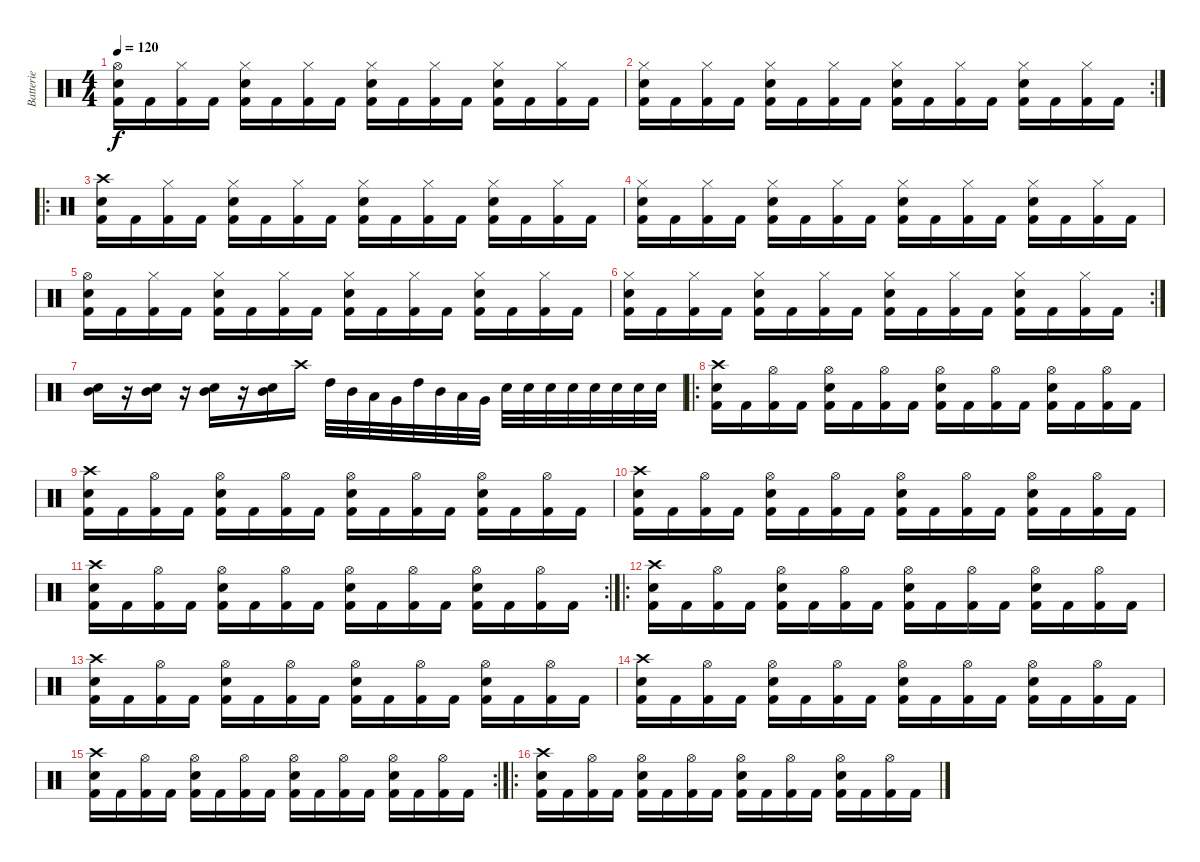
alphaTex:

\track ("Batterie" "Batterie") {instrument percussion}
\staff {score}
\articulation defaults
\ts (4 4)
\tempo 120
\clef neutral
\ks c
("Hi-Hat (open)" "Electric Snare (hit)" "Kick (hit) 2").16{dy f} "Kick (hit) 2".16 ("Hi-Hat (closed)" "Kick (hit) 2").16 "Kick (hit) 2".16 ("Hi-Hat (closed)" "Electric Snare (hit)" "Kick (hit) 2").16 "Kick (hit) 2".16 ("Hi-Hat (closed)" "Kick (hit) 2").16 "Kick (hit) 2".16 ("Hi-Hat (closed)" "Electric Snare (hit)" "Kick (hit) 2").16 "Kick (hit) 2".16 ("Hi-Hat (closed)" "Kick (hit) 2").16 "Kick (hit) 2".16 ("Hi-Hat (closed)" "Electric Snare (hit)" "Kick (hit) 2").16 "Kick (hit) 2".16 ("Hi-Hat (closed)" "Kick (hit) 2").16 "Kick (hit) 2".16 |
\rc 2
("Hi-Hat (closed)" "Electric Snare (hit)" "Kick (hit) 2").16 "Kick (hit) 2".16 ("Hi-Hat (closed)" "Kick (hit) 2").16 "Kick (hit) 2".16 ("Hi-Hat (closed)" "Electric Snare (hit)" "Kick (hit) 2").16 "Kick (hit) 2".16 ("Hi-Hat (closed)" "Kick (hit) 2").16 "Kick (hit) 2".16 ("Hi-Hat (closed)" "Electric Snare (hit)" "Kick (hit) 2").16 "Kick (hit) 2".16 ("Hi-Hat (closed)" "Kick (hit) 2").16 "Kick (hit) 2".16 ("Hi-Hat (closed)" "Electric Snare (hit)" "Kick (hit) 2").16 "Kick (hit) 2".16 ("Hi-Hat (closed)" "Kick (hit) 2").16 "Kick (hit) 2".16 |
\ro
("Crash high (hit)" "Electric Snare (hit)" "Kick (hit) 2").16 "Kick (hit) 2".16 ("Hi-Hat (closed)" "Kick (hit) 2").16 "Kick (hit) 2".16 ("Hi-Hat (closed)" "Electric Snare (hit)" "Kick (hit) 2").16 "Kick (hit) 2".16 ("Hi-Hat (closed)" "Kick (hit) 2").16 "Kick (hit) 2".16 ("Hi-Hat (closed)" "Electric Snare (hit)" "Kick (hit) 2").16 "Kick (hit) 2".16 ("Hi-Hat (closed)" "Kick (hit) 2").16 "Kick (hit) 2".16 ("Hi-Hat (closed)" "Electric Snare (hit)" "Kick (hit) 2").16 "Kick (hit) 2".16 ("Hi-Hat (closed)" "Kick (hit) 2").16 "Kick (hit) 2".16 |
("Hi-Hat (closed)" "Electric Snare (hit)" "Kick (hit) 2").16 "Kick (hit) 2".16 ("Hi-Hat (closed)" "Kick (hit) 2").16 "Kick (hit) 2".16 ("Hi-Hat (closed)" "Electric Snare (hit)" "Kick (hit) 2").16 "Kick (hit) 2".16 ("Hi-Hat (closed)" "Kick (hit) 2").16 "Kick (hit) 2".16 ("Hi-Hat (closed)" "Electric Snare (hit)" "Kick (hit) 2").16 "Kick (hit) 2".16 ("Hi-Hat (closed)" "Kick (hit) 2").16 "Kick (hit) 2".16 ("Hi-Hat (closed)" "Electric Snare (hit)" "Kick (hit) 2").16 "Kick (hit) 2".16 ("Hi-Hat (closed)" "Kick (hit) 2").16 "Kick (hit) 2".16 |
("Hi-Hat (open)" "Electric Snare (hit)" "Kick (hit) 2").16 "Kick (hit) 2".16 ("Hi-Hat (closed)" "Kick (hit) 2").16 "Kick (hit) 2".16 ("Hi-Hat (closed)" "Electric Snare (hit)" "Kick (hit) 2").16 "Kick (hit) 2".16 ("Hi-Hat (closed)" "Kick (hit) 2").16 "Kick (hit) 2".16 ("Hi-Hat (closed)" "Electric Snare (hit)" "Kick (hit) 2").16 "Kick (hit) 2".16 ("Hi-Hat (closed)" "Kick (hit) 2").16 "Kick (hit) 2".16 ("Hi-Hat (closed)" "Electric Snare (hit)" "Kick (hit) 2").16 "Kick (hit) 2".16 ("Hi-Hat (closed)" "Kick (hit) 2").16 "Kick (hit) 2".16 |
\rc 2
("Hi-Hat (closed)" "Electric Snare (hit)" "Kick (hit) 2").16 "Kick (hit) 2".16 ("Hi-Hat (closed)" "Kick (hit) 2").16 "Kick (hit) 2".16 ("Hi-Hat (closed)" "Electric Snare (hit)" "Kick (hit) 2").16 "Kick (hit) 2".16 ("Hi-Hat (closed)" "Kick (hit) 2").16 "Kick (hit) 2".16 ("Hi-Hat (closed)" "Electric Snare (hit)" "Kick (hit) 2").16 "Kick (hit) 2".16 ("Hi-Hat (closed)" "Kick (hit) 2").16 "Kick (hit) 2".16 ("Hi-Hat (closed)" "Electric Snare (hit)" "Kick (hit) 2").16 "Kick (hit) 2".16 ("Hi-Hat (closed)" "Kick (hit) 2").16 "Kick (hit) 2".16 |
("Electric Snare (hit)" "Mid Tom (hit)").16 r.16 ("Electric Snare (hit)" "Mid Tom (hit)").16 r.16 ("Electric Snare (hit)" "Mid Tom (hit)").16 r.16 ("Electric Snare (hit)" "Mid Tom (hit)").16 "Crash high (hit)".16 "High Tom (hit)".32 "Mid Tom (hit)".32 "Low Tom (hit)".32 "Very Low Tom (hit)".32 "High Tom (hit)".32 "Mid Tom (hit)".32 "Low Tom (hit)".32 "Very Low Tom (hit)".32 "Electric Snare (hit)".32 "Electric Snare (hit)".32 "Electric Snare (hit)".32 "Electric Snare (hit)".32 "Electric Snare (hit)".32 "Electric Snare (hit)".32 "Electric Snare (hit)".32 "Electric Snare (hit)".32 |
\ro
("Crash high (hit)" "Electric Snare (hit)" "Kick (hit) 2").16 "Kick (hit) 2".16 ("Hi-Hat (open)" "Kick (hit) 2").16 "Kick (hit) 2".16 ("Hi-Hat (open)" "Electric Snare (hit)" "Kick (hit) 2").16 "Kick (hit) 2".16 ("Hi-Hat (open)" "Kick (hit) 2").16 "Kick (hit) 2".16 ("Hi-Hat (open)" "Electric Snare (hit)" "Kick (hit) 2").16 "Kick (hit) 2".16 ("Hi-Hat (open)" "Kick (hit) 2").16 "Kick (hit) 2".16 ("Hi-Hat (open)" "Electric Snare (hit)" "Kick (hit) 2").16 "Kick (hit) 2".16 ("Hi-Hat (open)" "Kick (hit) 2").16 "Kick (hit) 2".16 |
("Crash high (hit)" "Electric Snare (hit)" "Kick (hit) 2").16 "Kick (hit) 2".16 ("Hi-Hat (open)" "Kick (hit) 2").16 "Kick (hit) 2".16 ("Hi-Hat (open)" "Electric Snare (hit)" "Kick (hit) 2").16 "Kick (hit) 2".16 ("Hi-Hat (open)" "Kick (hit) 2").16 "Kick (hit) 2".16 ("Hi-Hat (open)" "Electric Snare (hit)" "Kick (hit) 2").16 "Kick (hit) 2".16 ("Hi-Hat (open)" "Kick (hit) 2").16 "Kick (hit) 2".16 ("Hi-Hat (open)" "Electric Snare (hit)" "Kick (hit) 2").16 "Kick (hit) 2".16 ("Hi-Hat (open)" "Kick (hit) 2").16 "Kick (hit) 2".16 |
("Crash high (hit)" "Electric Snare (hit)" "Kick (hit) 2").16 "Kick (hit) 2".16 ("Hi-Hat (open)" "Kick (hit) 2").16 "Kick (hit) 2".16 ("Hi-Hat (open)" "Electric Snare (hit)" "Kick (hit) 2").16 "Kick (hit) 2".16 ("Hi-Hat (open)" "Kick (hit) 2").16 "Kick (hit) 2".16 ("Hi-Hat (open)" "Electric Snare (hit)" "Kick (hit) 2").16 "Kick (hit) 2".16 ("Hi-Hat (open)" "Kick (hit) 2").16 "Kick (hit) 2".16 ("Hi-Hat (open)" "Electric Snare (hit)" "Kick (hit) 2").16 "Kick (hit) 2".16 ("Hi-Hat (open)" "Kick (hit) 2").16 "Kick (hit) 2".16 |
\rc 2
("Crash high (hit)" "Electric Snare (hit)" "Kick (hit) 2").16 "Kick (hit) 2".16 ("Hi-Hat (open)" "Kick (hit) 2").16 "Kick (hit) 2".16 ("Hi-Hat (open)" "Electric Snare (hit)" "Kick (hit) 2").16 "Kick (hit) 2".16 ("Hi-Hat (open)" "Kick (hit) 2").16 "Kick (hit) 2".16 ("Hi-Hat (open)" "Electric Snare (hit)" "Kick (hit) 2").16 "Kick (hit) 2".16 ("Hi-Hat (open)" "Kick (hit) 2").16 "Kick (hit) 2".16 ("Hi-Hat (open)" "Electric Snare (hit)" "Kick (hit) 2").16 "Kick (hit) 2".16 ("Hi-Hat (open)" "Kick (hit) 2").16 "Kick (hit) 2".16 |
\ro
("Crash high (hit)" "Electric Snare (hit)" "Kick (hit) 2").16 "Kick (hit) 2".16 ("Hi-Hat (open)" "Kick (hit) 2").16 "Kick (hit) 2".16 ("Hi-Hat (open)" "Electric Snare (hit)" "Kick (hit) 2").16 "Kick (hit) 2".16 ("Hi-Hat (open)" "Kick (hit) 2").16 "Kick (hit) 2".16 ("Hi-Hat (open)" "Electric Snare (hit)" "Kick (hit) 2").16 "Kick (hit) 2".16 ("Hi-Hat (open)" "Kick (hit) 2").16 "Kick (hit) 2".16 ("Hi-Hat (open)" "Electric Snare (hit)" "Kick (hit) 2").16 "Kick (hit) 2".16 ("Hi-Hat (open)" "Kick (hit) 2").16 "Kick (hit) 2".16 |
("Crash high (hit)" "Electric Snare (hit)" "Kick (hit) 2").16 "Kick (hit) 2".16 ("Hi-Hat (open)" "Kick (hit) 2").16 "Kick (hit) 2".16 ("Hi-Hat (open)" "Electric Snare (hit)" "Kick (hit) 2").16 "Kick (hit) 2".16 ("Hi-Hat (open)" "Kick (hit) 2").16 "Kick (hit) 2".16 ("Hi-Hat (open)" "Electric Snare (hit)" "Kick (hit) 2").16 "Kick (hit) 2".16 ("Hi-Hat (open)" "Kick (hit) 2").16 "Kick (hit) 2".16 ("Hi-Hat (open)" "Electric Snare (hit)" "Kick (hit) 2").16 "Kick (hit) 2".16 ("Hi-Hat (open)" "Kick (hit) 2").16 "Kick (hit) 2".16 |
("Crash high (hit)" "Electric Snare (hit)" "Kick (hit) 2").16 "Kick (hit) 2".16 ("Hi-Hat (open)" "Kick (hit) 2").16 "Kick (hit) 2".16 ("Hi-Hat (open)" "Electric Snare (hit)" "Kick (hit) 2").16 "Kick (hit) 2".16 ("Hi-Hat (open)" "Kick (hit) 2").16 "Kick (hit) 2".16 ("Hi-Hat (open)" "Electric Snare (hit)" "Kick (hit) 2").16 "Kick (hit) 2".16 ("Hi-Hat (open)" "Kick (hit) 2").16 "Kick (hit) 2".16 ("Hi-Hat (open)" "Electric Snare (hit)" "Kick (hit) 2").16 "Kick (hit) 2".16 ("Hi-Hat (open)" "Kick (hit) 2").16 "Kick (hit) 2".16 |
\rc 2
("Crash high (hit)" "Electric Snare (hit)" "Kick (hit) 2").16 "Kick (hit) 2".16 ("Hi-Hat (open)" "Kick (hit) 2").16 "Kick (hit) 2".16 ("Hi-Hat (open)" "Electric Snare (hit)" "Kick (hit) 2").16 "Kick (hit) 2".16 ("Hi-Hat (open)" "Kick (hit) 2").16 "Kick (hit) 2".16 ("Hi-Hat (open)" "Electric Snare (hit)" "Kick (hit) 2").16 "Kick (hit) 2".16 ("Hi-Hat (open)" "Kick (hit) 2").16 "Kick (hit) 2".16 ("Hi-Hat (open)" "Electric Snare (hit)" "Kick (hit) 2").16 "Kick (hit) 2".16 ("Hi-Hat (open)" "Kick (hit) 2").16 "Kick (hit) 2".16 |
\ro
("Crash high (hit)" "Electric Snare (hit)" "Kick (hit) 2").16 "Kick (hit) 2".16 ("Hi-Hat (open)" "Kick (hit) 2").16 "Kick (hit) 2".16 ("Hi-Hat (open)" "Electric Snare (hit)" "Kick (hit) 2").16 "Kick (hit) 2".16 ("Hi-Hat (open)" "Kick (hit) 2").16 "Kick (hit) 2".16 ("Hi-Hat (open)" "Electric Snare (hit)" "Kick (hit) 2").16 "Kick (hit) 2".16 ("Hi-Hat (open)" "Kick (hit) 2").16 "Kick (hit) 2".16 ("Hi-Hat (open)" "Electric Snare (hit)" "Kick (hit) 2").16 "Kick (hit) 2".16 ("Hi-Hat (open)" "Kick (hit) 2").16 "Kick (hit) 2".16
